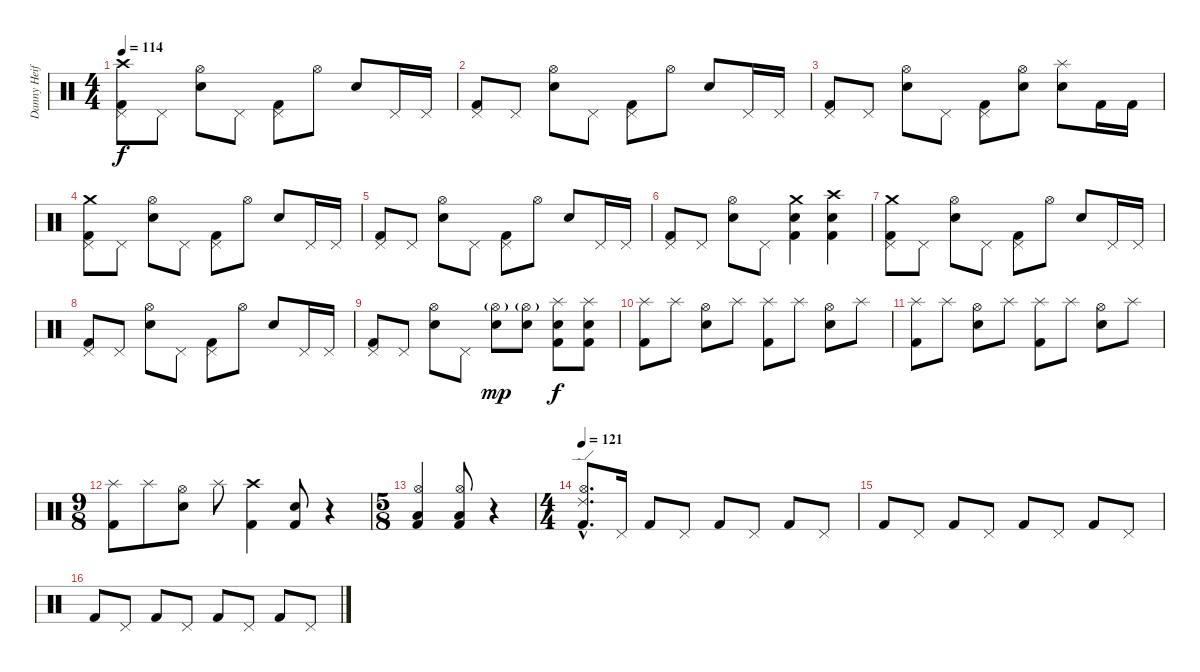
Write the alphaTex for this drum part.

\track ("Danny Heifetz - Drums" "Danny Heif") {instrument percussion}
\staff {score}
\articulation defaults
\ts (4 4)
\tempo 114
\clef neutral
\ks c
("Crash high (hit)" "Pedal Hi-Hat (hit)" "Kick (hit) 2").8{dy f volume 13} "Pedal Hi-Hat (hit)".8 ("Hi-Hat (open)" "Electric Snare (hit)").8 "Pedal Hi-Hat (hit)".8 ("Pedal Hi-Hat (hit)" "Kick (hit) 2").8 "Hi-Hat (open)".8 "Electric Snare (hit)".8 "Pedal Hi-Hat (hit)".16 "Pedal Hi-Hat (hit)".16 |
("Pedal Hi-Hat (hit)" "Kick (hit) 2").8 "Pedal Hi-Hat (hit)".8 ("Hi-Hat (open)" "Electric Snare (hit)").8 "Pedal Hi-Hat (hit)".8 ("Pedal Hi-Hat (hit)" "Kick (hit) 2").8 "Hi-Hat (open)".8 "Electric Snare (hit)".8 "Pedal Hi-Hat (hit)".16 "Pedal Hi-Hat (hit)".16 |
("Pedal Hi-Hat (hit)" "Kick (hit) 2").8 "Pedal Hi-Hat (hit)".8 ("Hi-Hat (open)" "Electric Snare (hit)").8 "Pedal Hi-Hat (hit)".8 ("Pedal Hi-Hat (hit)" "Kick (hit) 2").8 ("Hi-Hat (open)" "Electric Snare (hit)").8 ("Splash (hit)" "Electric Snare (hit)").8 "Kick (hit) 2".16 "Kick (hit) 2".16 |
("Crash medium (hit)" "Pedal Hi-Hat (hit)" "Kick (hit) 2").8 "Pedal Hi-Hat (hit)".8 ("Hi-Hat (open)" "Electric Snare (hit)").8 "Pedal Hi-Hat (hit)".8 ("Pedal Hi-Hat (hit)" "Kick (hit) 2").8 "Hi-Hat (open)".8 "Electric Snare (hit)".8 "Pedal Hi-Hat (hit)".16 "Pedal Hi-Hat (hit)".16 |
("Pedal Hi-Hat (hit)" "Kick (hit) 2").8 "Pedal Hi-Hat (hit)".8 ("Hi-Hat (open)" "Electric Snare (hit)").8 "Pedal Hi-Hat (hit)".8 ("Pedal Hi-Hat (hit)" "Kick (hit) 2").8 "Hi-Hat (open)".8 "Electric Snare (hit)".8 "Pedal Hi-Hat (hit)".16 "Pedal Hi-Hat (hit)".16 |
("Pedal Hi-Hat (hit)" "Kick (hit) 2").8 "Pedal Hi-Hat (hit)".8 ("Hi-Hat (open)" "Electric Snare (hit)").8 "Pedal Hi-Hat (hit)".8 ("Crash medium (hit)" "Electric Snare (hit)" "Kick (hit) 2").4 ("Crash high (hit)" "Electric Snare (hit)" "Kick (hit) 2").4 |
("Crash medium (hit)" "Pedal Hi-Hat (hit)" "Kick (hit) 2").8 "Pedal Hi-Hat (hit)".8 ("Hi-Hat (open)" "Electric Snare (hit)").8 "Pedal Hi-Hat (hit)".8 ("Pedal Hi-Hat (hit)" "Kick (hit) 2").8 "Hi-Hat (open)".8 "Electric Snare (hit)".8 "Pedal Hi-Hat (hit)".16 "Pedal Hi-Hat (hit)".16 |
("Pedal Hi-Hat (hit)" "Kick (hit) 2").8 "Pedal Hi-Hat (hit)".8 ("Hi-Hat (open)" "Electric Snare (hit)").8 "Pedal Hi-Hat (hit)".8 ("Pedal Hi-Hat (hit)" "Kick (hit) 2").8 "Hi-Hat (open)".8 "Electric Snare (hit)".8 "Pedal Hi-Hat (hit)".16 "Pedal Hi-Hat (hit)".16 |
("Pedal Hi-Hat (hit)" "Kick (hit) 2").8 "Pedal Hi-Hat (hit)".8 ("Hi-Hat (open)" "Electric Snare (hit)").8 "Pedal Hi-Hat (hit)".8 ("Hi-Hat (open)"{g} "Electric Snare (hit)").8{dy mp} ("Hi-Hat (open)"{g} "Electric Snare (hit)").8 ("Splash (hit)" "Electric Snare (hit)" "Kick (hit) 2").8{dy f} ("Splash (hit)" "Electric Snare (hit)" "Kick (hit) 2").8 |
("Splash (hit)" "Kick (hit) 2").8 "Splash (hit)".8 ("Hi-Hat (open)" "Electric Snare (hit)").8 "Splash (hit)".8 ("Splash (hit)" "Kick (hit) 2").8 "Splash (hit)".8 ("Hi-Hat (open)" "Electric Snare (hit)").8 "Splash (hit)".8 |
("Splash (hit)" "Kick (hit) 2").8 "Splash (hit)".8 ("Hi-Hat (open)" "Electric Snare (hit)").8 "Splash (hit)".8 ("Splash (hit)" "Kick (hit) 2").8 "Splash (hit)".8 ("Hi-Hat (open)" "Electric Snare (hit)").8 "Splash (hit)".8 |
\ts (9 8)
("Splash (hit)" "Kick (hit) 2").8 "Splash (hit)".8 ("Hi-Hat (open)" "Electric Snare (hit)").8 "Splash (hit)".8 ("Crash high (hit)" "Kick (hit) 2").4 ("Electric Snare (hit)" "Kick (hit) 2").8 r.4 |
\ts (5 8)
("Hi-Hat (open)" "Low Tom (hit)" "Kick (hit) 2").4 ("Hi-Hat (open)" "Low Tom (hit)" "Kick (hit) 2").8 r.4 |
\ts (4 4)
\tempo 121
("Ride (edge) 2"{hac} "Hi-Hat (open)"{hac} "Kick (hit) 2"{hac}).8{d volume 12} "Pedal Hi-Hat (hit)".16 "Kick (hit) 2".8 "Pedal Hi-Hat (hit)".8 "Kick (hit) 2".8 "Pedal Hi-Hat (hit)".8 "Kick (hit) 2".8 "Pedal Hi-Hat (hit)".8 |
"Kick (hit) 2".8 "Pedal Hi-Hat (hit)".8 "Kick (hit) 2".8 "Pedal Hi-Hat (hit)".8 "Kick (hit) 2".8 "Pedal Hi-Hat (hit)".8 "Kick (hit) 2".8 "Pedal Hi-Hat (hit)".8 |
"Kick (hit) 2".8 "Pedal Hi-Hat (hit)".8 "Kick (hit) 2".8 "Pedal Hi-Hat (hit)".8 "Kick (hit) 2".8 "Pedal Hi-Hat (hit)".8 "Kick (hit) 2".8 "Pedal Hi-Hat (hit)".8
